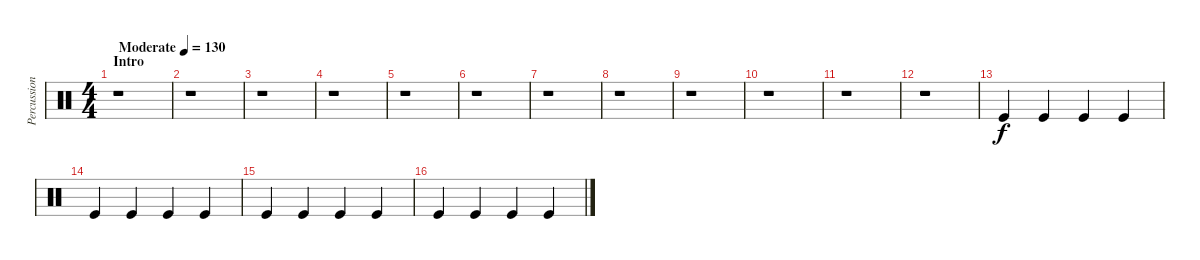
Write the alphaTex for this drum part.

\track ("Percussion" "Percussion") {instrument percussion}
\staff {score}
\articulation defaults
\ts (4 4)
\section ("" "Intro")
\tempo (130 "Moderate")
\clef neutral
\ks c
r.1{dy f} |
r.1 |
r.1 |
r.1 |
r.1 |
r.1 |
r.1 |
r.1 |
r.1 |
r.1 |
r.1 |
r.1 |
"Kick (hit)".4 "Kick (hit)".4 "Kick (hit)".4 "Kick (hit)".4 |
"Kick (hit)".4 "Kick (hit)".4 "Kick (hit)".4 "Kick (hit)".4 |
"Kick (hit)".4 "Kick (hit)".4 "Kick (hit)".4 "Kick (hit)".4 |
"Kick (hit)".4 "Kick (hit)".4 "Kick (hit)".4 "Kick (hit)".4
